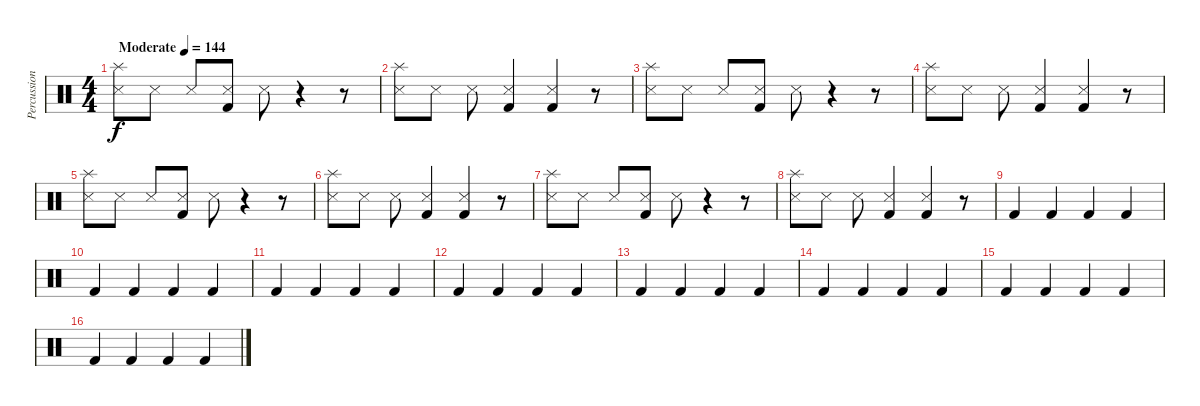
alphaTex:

\track ("Percussion" "Percussion") {instrument percussion}
\staff {score}
\articulation defaults
\ts (4 4)
\tempo (144 "Moderate")
\clef neutral
\ks c
("Splash (hit)" "Snare (side stick) 3").8{dy f} "Snare (side stick) 3".8 "Snare (side stick) 3".8 ("Snare (side stick) 3" "Kick (hit) 2").8 "Snare (side stick) 3".8 r.4 r.8 |
("Splash (hit)" "Snare (side stick) 3").8 "Snare (side stick) 3".8 "Snare (side stick) 3".8 ("Snare (side stick) 3" "Kick (hit) 2").4 ("Snare (side stick) 3" "Kick (hit) 2").4 r.8 |
("Splash (hit)" "Snare (side stick) 3").8 "Snare (side stick) 3".8 "Snare (side stick) 3".8 ("Snare (side stick) 3" "Kick (hit) 2").8 "Snare (side stick) 3".8 r.4 r.8 |
("Splash (hit)" "Snare (side stick) 3").8 "Snare (side stick) 3".8 "Snare (side stick) 3".8 ("Snare (side stick) 3" "Kick (hit) 2").4 ("Snare (side stick) 3" "Kick (hit) 2").4 r.8 |
("Splash (hit)" "Snare (side stick) 3").8 "Snare (side stick) 3".8 "Snare (side stick) 3".8 ("Snare (side stick) 3" "Kick (hit) 2").8 "Snare (side stick) 3".8 r.4 r.8 |
("Splash (hit)" "Snare (side stick) 3").8 "Snare (side stick) 3".8 "Snare (side stick) 3".8 ("Snare (side stick) 3" "Kick (hit) 2").4 ("Snare (side stick) 3" "Kick (hit) 2").4 r.8 |
("Splash (hit)" "Snare (side stick) 3").8 "Snare (side stick) 3".8 "Snare (side stick) 3".8 ("Snare (side stick) 3" "Kick (hit) 2").8 "Snare (side stick) 3".8 r.4 r.8 |
("Splash (hit)" "Snare (side stick) 3").8 "Snare (side stick) 3".8 "Snare (side stick) 3".8 ("Snare (side stick) 3" "Kick (hit) 2").4 ("Snare (side stick) 3" "Kick (hit) 2").4 r.8 |
"Kick (hit) 2".4 "Kick (hit) 2".4 "Kick (hit) 2".4 "Kick (hit) 2".4 |
"Kick (hit) 2".4 "Kick (hit) 2".4 "Kick (hit) 2".4 "Kick (hit) 2".4 |
"Kick (hit) 2".4 "Kick (hit) 2".4 "Kick (hit) 2".4 "Kick (hit) 2".4 |
"Kick (hit) 2".4 "Kick (hit) 2".4 "Kick (hit) 2".4 "Kick (hit) 2".4 |
"Kick (hit) 2".4 "Kick (hit) 2".4 "Kick (hit) 2".4 "Kick (hit) 2".4 |
"Kick (hit) 2".4 "Kick (hit) 2".4 "Kick (hit) 2".4 "Kick (hit) 2".4 |
"Kick (hit) 2".4 "Kick (hit) 2".4 "Kick (hit) 2".4 "Kick (hit) 2".4 |
"Kick (hit) 2".4 "Kick (hit) 2".4 "Kick (hit) 2".4 "Kick (hit) 2".4
